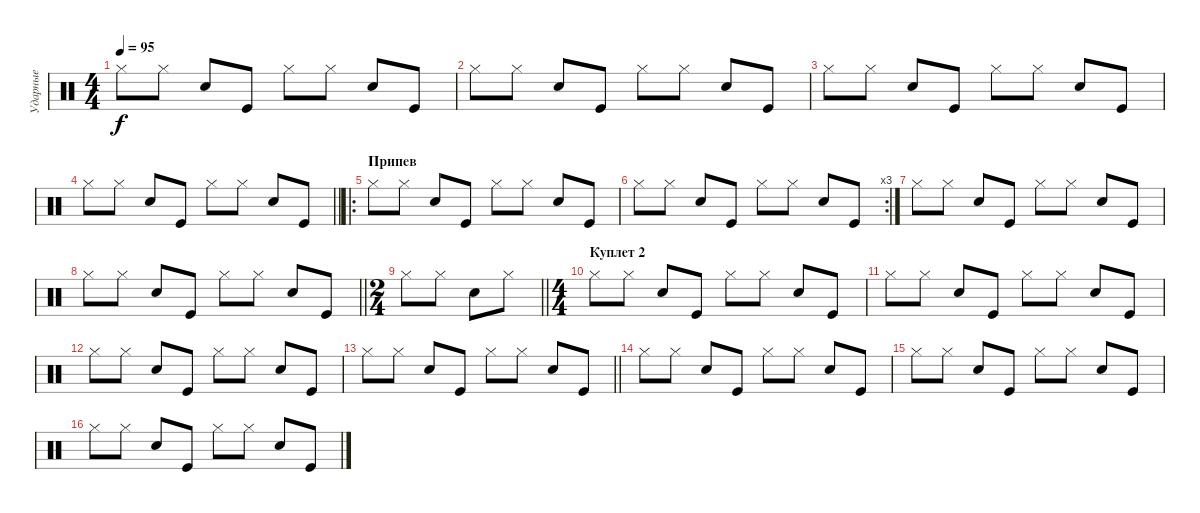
\track ("Ударные" "Ударные") {instrument percussion}
\staff {score}
\articulation defaults
\ts (4 4)
\tempo 95
\clef neutral
\ks c "Hi-Hat (closed)".8{dy f} "Hi-Hat (closed)".8 "Snare (hit) 2".8 "Kick (hit)".8 "Hi-Hat (closed)".8 "Hi-Hat (closed)".8 "Snare (hit) 2".8 "Kick (hit)".8
|
"Hi-Hat (closed)".8 "Hi-Hat (closed)".8 "Snare (hit) 2".8 "Kick (hit)".8 "Hi-Hat (closed)".8 "Hi-Hat (closed)".8 "Snare (hit) 2".8 "Kick (hit)".8 |
"Hi-Hat (closed)".8 "Hi-Hat (closed)".8 "Snare (hit) 2".8 "Kick (hit)".8 "Hi-Hat (closed)".8 "Hi-Hat (closed)".8 "Snare (hit) 2".8 "Kick (hit)".8 |
\barLineRight lightlight "Hi-Hat (closed)".8 "Hi-Hat (closed)".8 "Snare (hit) 2".8 "Kick (hit)".8 "Hi-Hat (closed)".8 "Hi-Hat (closed)".8 "Snare (hit) 2".8 "Kick (hit)".8
|
\ro
\section ("" "Припев")
"Hi-Hat (closed)".8 "Hi-Hat (closed)".8 "Snare (hit) 2".8 "Kick (hit)".8 "Hi-Hat (closed)".8 "Hi-Hat (closed)".8 "Snare (hit) 2".8 "Kick (hit)".8 |
\rc 3 "Hi-Hat (closed)".8 "Hi-Hat (closed)".8 "Snare (hit) 2".8 "Kick (hit)".8 "Hi-Hat (closed)".8 "Hi-Hat (closed)".8 "Snare (hit) 2".8 "Kick (hit)".8
|
"Hi-Hat (closed)".8 "Hi-Hat (closed)".8 "Snare (hit) 2".8 "Kick (hit)".8 "Hi-Hat (closed)".8 "Hi-Hat (closed)".8 "Snare (hit) 2".8 "Kick (hit)".8 |
\barLineRight lightlight "Hi-Hat (closed)".8 "Hi-Hat (closed)".8 "Snare (hit) 2".8 "Kick (hit)".8 "Hi-Hat (closed)".8 "Hi-Hat (closed)".8 "Snare (hit) 2".8 "Kick (hit)".8
|
\ts (2 4)
\barLineRight lightlight "Hi-Hat (closed)".8 "Hi-Hat (closed)".8 "Snare (hit) 2".8 "Hi-Hat (closed)".8
|
\ts (4 4)
\section ("" "Куплет 2")
"Hi-Hat (closed)".8 "Hi-Hat (closed)".8 "Snare (hit) 2".8 "Kick (hit)".8 "Hi-Hat (closed)".8 "Hi-Hat (closed)".8 "Snare (hit) 2".8 "Kick (hit)".8 |
"Hi-Hat (closed)".8 "Hi-Hat (closed)".8 "Snare (hit) 2".8 "Kick (hit)".8 "Hi-Hat (closed)".8 "Hi-Hat (closed)".8 "Snare (hit) 2".8 "Kick (hit)".8 |
"Hi-Hat (closed)".8 "Hi-Hat (closed)".8 "Snare (hit) 2".8 "Kick (hit)".8 "Hi-Hat (closed)".8 "Hi-Hat (closed)".8 "Snare (hit) 2".8 "Kick (hit)".8 |
\barLineRight lightlight "Hi-Hat (closed)".8 "Hi-Hat (closed)".8 "Snare (hit) 2".8 "Kick (hit)".8 "Hi-Hat (closed)".8 "Hi-Hat (closed)".8 "Snare (hit) 2".8 "Kick (hit)".8
|
"Hi-Hat (closed)".8 "Hi-Hat (closed)".8 "Snare (hit) 2".8 "Kick (hit)".8 "Hi-Hat (closed)".8 "Hi-Hat (closed)".8 "Snare (hit) 2".8 "Kick (hit)".8 |
"Hi-Hat (closed)".8 "Hi-Hat (closed)".8 "Snare (hit) 2".8 "Kick (hit)".8 "Hi-Hat (closed)".8 "Hi-Hat (closed)".8 "Snare (hit) 2".8 "Kick (hit)".8 |
"Hi-Hat (closed)".8 "Hi-Hat (closed)".8 "Snare (hit) 2".8 "Kick (hit)".8 "Hi-Hat (closed)".8 "Hi-Hat (closed)".8 "Snare (hit) 2".8 "Kick (hit)".8
